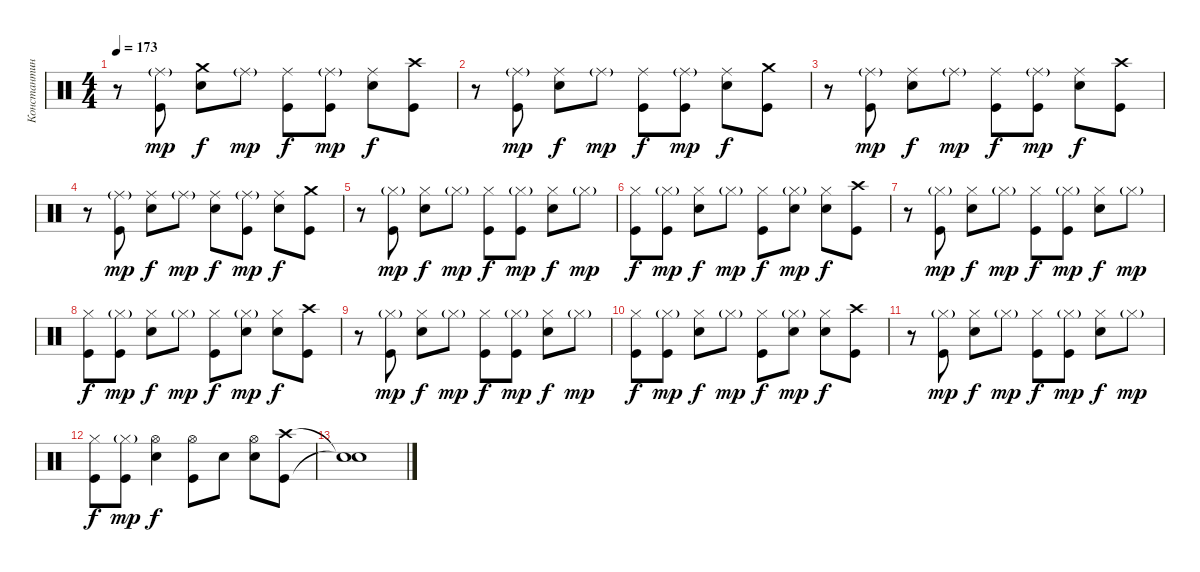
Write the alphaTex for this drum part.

\track ("Константин Дементьев" "Константин") {instrument percussion}
\staff {score}
\articulation defaults
\ts (4 4)
\tempo 173
\clef neutral
\ks c
r.8{dy f} ("Ride (middle)"{g} "Kick (hit)").8{dy mp} ("Crash medium (hit)" "Electric Snare (hit)").8{dy f} "Ride (middle)"{g}.8{dy mp} ("Ride (middle)" "Kick (hit)").8{dy f} ("Ride (middle)"{g} "Kick (hit)").8{dy mp} ("Ride (middle)" "Electric Snare (hit)").8{dy f} ("Crash high (hit)" "Kick (hit)").8 |
r.8 ("Ride (middle)"{g} "Kick (hit)").8{dy mp} ("Ride (middle)" "Electric Snare (hit)").8{dy f} "Ride (middle)"{g}.8{dy mp} ("Ride (middle)" "Kick (hit)").8{dy f} ("Ride (middle)"{g} "Kick (hit)").8{dy mp} ("Ride (middle)" "Electric Snare (hit)").8{dy f} ("Crash medium (hit)" "Kick (hit)").8 |
r.8 ("Ride (middle)"{g} "Kick (hit)").8{dy mp} ("Ride (middle)" "Electric Snare (hit)").8{dy f} "Ride (middle)"{g}.8{dy mp} ("Ride (middle)" "Kick (hit)").8{dy f} ("Ride (middle)"{g} "Kick (hit)").8{dy mp} ("Ride (middle)" "Electric Snare (hit)").8{dy f} ("Crash high (hit)" "Kick (hit)").8 |
r.8 ("Ride (middle)"{g} "Kick (hit)").8{dy mp} ("Ride (middle)" "Electric Snare (hit)").8{dy f} "Ride (middle)"{g}.8{dy mp} ("Ride (middle)" "Electric Snare (hit)").8{dy f} ("Ride (middle)"{g} "Kick (hit)").8{dy mp} ("Ride (middle)" "Electric Snare (hit)").8{dy f} ("Crash medium (hit)" "Kick (hit)").8 |
r.8 ("Hi-Hat (closed)"{g} "Kick (hit)").8{dy mp} ("Hi-Hat (closed)" "Electric Snare (hit)").8{dy f} "Hi-Hat (closed)"{g}.8{dy mp} ("Hi-Hat (closed)" "Kick (hit)").8{dy f} ("Hi-Hat (closed)"{g} "Kick (hit)").8{dy mp} ("Hi-Hat (closed)" "Electric Snare (hit)").8{dy f} "Hi-Hat (closed)"{g}.8{dy mp} |
("Hi-Hat (closed)" "Kick (hit)").8{dy f} ("Hi-Hat (closed)"{g} "Kick (hit)").8{dy mp} ("Hi-Hat (closed)" "Electric Snare (hit)").8{dy f} "Hi-Hat (closed)"{g}.8{dy mp} ("Hi-Hat (closed)" "Kick (hit)").8{dy f} ("Hi-Hat (closed)"{g} "Electric Snare (hit)").8{dy mp} ("Hi-Hat (closed)" "Electric Snare (hit)").8{dy f} ("Crash high (hit)" "Kick (hit)").8 |
r.8 ("Hi-Hat (closed)"{g} "Kick (hit)").8{dy mp} ("Hi-Hat (closed)" "Electric Snare (hit)").8{dy f} "Hi-Hat (closed)"{g}.8{dy mp} ("Hi-Hat (closed)" "Kick (hit)").8{dy f} ("Hi-Hat (closed)"{g} "Kick (hit)").8{dy mp} ("Hi-Hat (closed)" "Electric Snare (hit)").8{dy f} "Hi-Hat (closed)"{g}.8{dy mp} |
("Hi-Hat (closed)" "Kick (hit)").8{dy f} ("Hi-Hat (closed)"{g} "Kick (hit)").8{dy mp} ("Hi-Hat (closed)" "Electric Snare (hit)").8{dy f} "Hi-Hat (closed)"{g}.8{dy mp} ("Hi-Hat (closed)" "Kick (hit)").8{dy f} ("Hi-Hat (closed)"{g} "Electric Snare (hit)").8{dy mp} ("Hi-Hat (closed)" "Electric Snare (hit)").8{dy f} ("Crash high (hit)" "Kick (hit)").8 |
r.8 ("Hi-Hat (closed)"{g} "Kick (hit)").8{dy mp} ("Hi-Hat (closed)" "Electric Snare (hit)").8{dy f} "Hi-Hat (closed)"{g}.8{dy mp} ("Hi-Hat (closed)" "Kick (hit)").8{dy f} ("Hi-Hat (closed)"{g} "Kick (hit)").8{dy mp} ("Hi-Hat (closed)" "Electric Snare (hit)").8{dy f} "Hi-Hat (closed)"{g}.8{dy mp} |
("Hi-Hat (closed)" "Kick (hit)").8{dy f} ("Hi-Hat (closed)"{g} "Kick (hit)").8{dy mp} ("Hi-Hat (closed)" "Electric Snare (hit)").8{dy f} "Hi-Hat (closed)"{g}.8{dy mp} ("Hi-Hat (closed)" "Kick (hit)").8{dy f} ("Hi-Hat (closed)"{g} "Electric Snare (hit)").8{dy mp} ("Hi-Hat (closed)" "Electric Snare (hit)").8{dy f} ("Crash high (hit)" "Kick (hit)").8 |
r.8 ("Hi-Hat (closed)"{g} "Kick (hit)").8{dy mp} ("Hi-Hat (closed)" "Electric Snare (hit)").8{dy f} "Hi-Hat (closed)"{g}.8{dy mp} ("Hi-Hat (closed)" "Kick (hit)").8{dy f} ("Hi-Hat (closed)"{g} "Kick (hit)").8{dy mp} ("Hi-Hat (closed)" "Electric Snare (hit)").8{dy f} "Hi-Hat (closed)"{g}.8{dy mp} |
("Hi-Hat (closed)" "Kick (hit)").8{dy f} ("Hi-Hat (closed)"{g} "Kick (hit)").8{dy mp} ("Hi-Hat (open)" "Electric Snare (hit)").4{dy f} ("Hi-Hat (open)" "Kick (hit)").8 "Electric Snare (hit)".8 ("Hi-Hat (open)" "Electric Snare (hit)").8 ("Crash high (hit)" "Kick (hit)").8 |
("Snare (hit)"{t} "Snare (hit)"{t}).1
